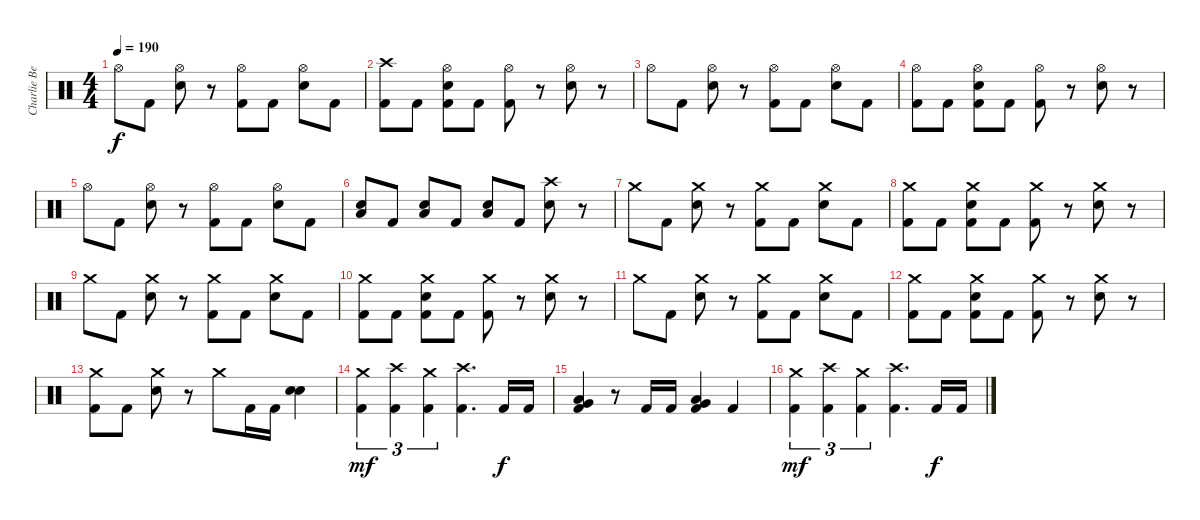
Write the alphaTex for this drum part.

\track ("Charlie Benante" "Charlie Be") {instrument percussion}
\staff {score}
\articulation defaults
\ts (4 4)
\tempo 190
\clef neutral
\ks c "Hi-Hat (open)".8{dy f} "Kick (hit) 2".8
("Snare (hit) 2" "Hi-Hat (open)").8 r.8 ("Kick (hit) 2" "Hi-Hat (open)").8 "Kick (hit) 2".8 ("Snare (hit) 2" "Hi-Hat (open)").8 "Kick (hit) 2".8 |
("Kick (hit) 2" "Crash high (hit)").8 "Kick (hit) 2".8 ("Kick (hit) 2" "Hi-Hat (open)" "Snare (hit) 2").8 "Kick (hit) 2".8 ("Kick (hit) 2" "Hi-Hat (open)").8 r.8 ("Snare (hit) 2" "Hi-Hat (open)").8 r.8 |
"Hi-Hat (open)".8 "Kick (hit) 2".8 ("Snare (hit) 2" "Hi-Hat (open)").8 r.8 ("Kick (hit) 2" "Hi-Hat (open)").8 "Kick (hit) 2".8 ("Snare (hit) 2" "Hi-Hat (open)").8 "Kick (hit) 2".8 |
("Kick (hit) 2" "Hi-Hat (open)").8 "Kick (hit) 2".8 ("Kick (hit) 2" "Hi-Hat (open)" "Snare (hit) 2").8 "Kick (hit) 2".8 ("Kick (hit) 2" "Hi-Hat (open)").8 r.8 ("Snare (hit) 2" "Hi-Hat (open)").8 r.8 |
"Hi-Hat (open)".8 "Kick (hit) 2".8 ("Snare (hit) 2" "Hi-Hat (open)").8 r.8 ("Kick (hit) 2" "Hi-Hat (open)").8 "Kick (hit) 2".8 ("Snare (hit) 2" "Hi-Hat (open)").8 "Kick (hit) 2".8 |
("Snare (hit) 2" "Low Tom (hit)").8 "Kick (hit) 2".8 ("Snare (hit) 2" "Low Tom (hit)").8 "Kick (hit) 2".8 ("Snare (hit) 2" "Low Tom (hit)").8 "Kick (hit) 2".8 ("Snare (hit) 2" "Crash high (hit)").8 r.8 |
"Crash medium (hit)".8 "Kick (hit) 2".8 ("Snare (hit) 2" "Crash medium (hit)").8 r.8 ("Kick (hit) 2" "Crash medium (hit)").8 "Kick (hit) 2".8 ("Snare (hit) 2" "Crash medium (hit)").8 "Kick (hit) 2".8 |
("Kick (hit) 2" "Crash medium (hit)").8 "Kick (hit) 2".8 ("Kick (hit) 2" "Crash medium (hit)" "Snare (hit) 2").8 "Kick (hit) 2".8 ("Kick (hit) 2" "Crash medium (hit)").8 r.8 ("Snare (hit) 2" "Crash medium (hit)").8 r.8 |
"Crash medium (hit)".8 "Kick (hit) 2".8 ("Snare (hit) 2" "Crash medium (hit)").8 r.8 ("Kick (hit) 2" "Crash medium (hit)").8 "Kick (hit) 2".8 ("Snare (hit) 2" "Crash medium (hit)").8 "Kick (hit) 2".8 |
("Kick (hit) 2" "Crash medium (hit)").8 "Kick (hit) 2".8 ("Kick (hit) 2" "Crash medium (hit)" "Snare (hit) 2").8 "Kick (hit) 2".8 ("Kick (hit) 2" "Crash medium (hit)").8 r.8 ("Snare (hit) 2" "Crash medium (hit)").8 r.8 |
"Crash medium (hit)".8 "Kick (hit) 2".8 ("Snare (hit) 2" "Crash medium (hit)").8 r.8 ("Kick (hit) 2" "Crash medium (hit)").8 "Kick (hit) 2".8 ("Snare (hit) 2" "Crash medium (hit)").8 "Kick (hit) 2".8 |
("Kick (hit) 2" "Crash medium (hit)").8 "Kick (hit) 2".8 ("Kick (hit) 2" "Crash medium (hit)" "Snare (hit) 2").8 "Kick (hit) 2".8 ("Kick (hit) 2" "Crash medium (hit)").8 r.8 ("Snare (hit) 2" "Crash medium (hit)").8 r.8 |
("Kick (hit) 2" "Crash medium (hit)").8 "Kick (hit) 2".8 ("Snare (hit) 2" "Crash medium (hit)").8 r.8 "Crash medium (hit)".8 "Kick (hit) 2".16 "Kick (hit) 2".16 ("Snare (hit) 2" "Snare (hit) 2").4{bd 480} |
("Kick (hit) 2" "Crash medium (hit)").4{tu (3 2) dy mf} ("Kick (hit) 2" "Crash high (hit)").4{tu (3 2)} ("Kick (hit) 2" "Crash medium (hit)").4{tu (3 2)} ("Kick (hit) 2" "Crash high (hit)").4{d} "Kick (hit) 2".16{dy f} "Kick (hit) 2".16 |
("Kick (hit) 2" "Low Floor Tom (hit)" "Very Low Tom (hit)").4 r.8 "Kick (hit) 2".16 "Kick (hit) 2".16 ("Kick (hit) 2" "Low Floor Tom (hit)" "Very Low Tom (hit)").4 "Kick (hit) 2".4 |
("Kick (hit) 2" "Crash medium (hit)").4{tu (3 2) dy mf} ("Kick (hit) 2" "Crash high (hit)").4{tu (3 2)} ("Kick (hit) 2" "Crash medium (hit)").4{tu (3 2)} ("Kick (hit) 2" "Crash high (hit)").4{d} "Kick (hit) 2".16{dy f} "Kick (hit) 2".16
